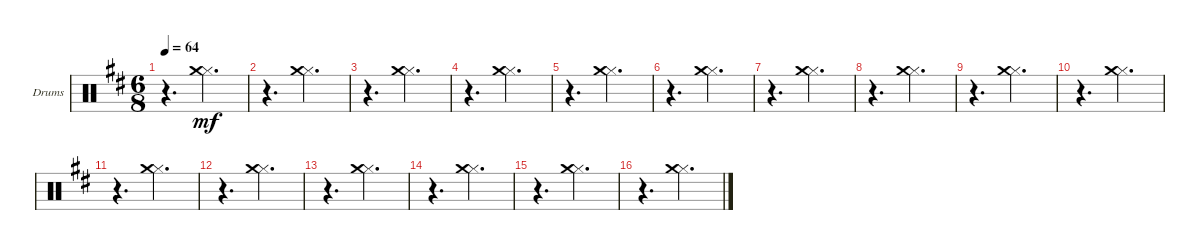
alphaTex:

\defaultSystemsLayout 4
\bracketExtendMode groupsimilarinstruments
\firstSystemTrackNameOrientation horizontal
\otherSystemsTrackNameOrientation horizontal
\track ("Drumkit" "Drums") {instrument percussion}
\staff {score}
\articulation defaults
\ts (6 8)
\tempo 64
\clef neutral
\scale
0.517241
\ks d
r.4{d dy mf} ("Hi-Hat (closed)" "Crash medium (hit)").4{d} |
\scale
0.241379 r.4{d} ("Hi-Hat (closed)" "Crash medium (hit)").4{d} |
\scale
0.241379 r.4{d} ("Hi-Hat (closed)" "Crash medium (hit)").4{d} |
r.4{d} ("Hi-Hat (closed)" "Crash medium (hit)").4{d} |
r.4{d} ("Hi-Hat (closed)" "Crash medium (hit)").4{d} |
r.4{d} ("Hi-Hat (closed)" "Crash medium (hit)").4{d} |
r.4{d} ("Hi-Hat (closed)" "Crash medium (hit)").4{d} |
r.4{d} ("Hi-Hat (closed)" "Crash medium (hit)").4{d} |
r.4{d} ("Hi-Hat (closed)" "Crash medium (hit)").4{d} |
r.4{d} ("Hi-Hat (closed)" "Crash medium (hit)").4{d} |
r.4{d} ("Hi-Hat (closed)" "Crash medium (hit)").4{d} |
r.4{d} ("Hi-Hat (closed)" "Crash medium (hit)").4{d} |
r.4{d} ("Hi-Hat (closed)" "Crash medium (hit)").4{d} |
r.4{d} ("Hi-Hat (closed)" "Crash medium (hit)").4{d} |
r.4{d} ("Hi-Hat (closed)" "Crash medium (hit)").4{d} |
r.4{d} ("Hi-Hat (closed)" "Crash medium (hit)").4{d}
